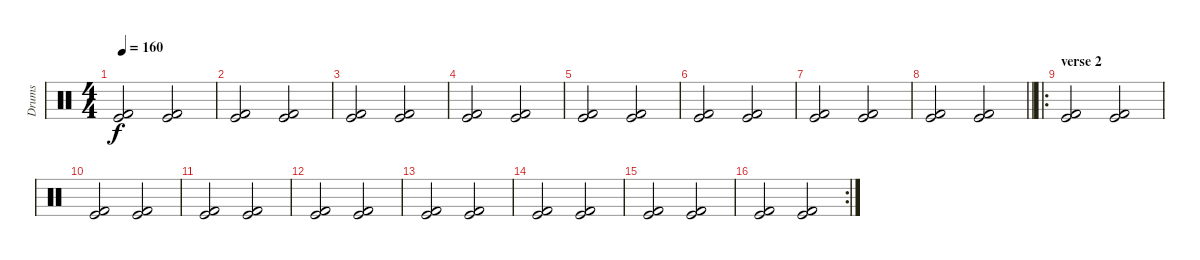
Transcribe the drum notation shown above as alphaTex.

\track ("Drums" "Drums") {instrument percussion}
\staff {score}
\articulation defaults
\ts (4 4)
\tempo 160
\clef neutral
\ks c
("Kick (hit)" "Kick (hit) 2").2{dy f} ("Kick (hit)" "Kick (hit) 2").2 |
("Kick (hit)" "Kick (hit) 2").2 ("Kick (hit)" "Kick (hit) 2").2 |
("Kick (hit)" "Kick (hit) 2").2 ("Kick (hit)" "Kick (hit) 2").2 |
("Kick (hit)" "Kick (hit) 2").2 ("Kick (hit)" "Kick (hit) 2").2 |
("Kick (hit)" "Kick (hit) 2").2 ("Kick (hit)" "Kick (hit) 2").2 |
("Kick (hit)" "Kick (hit) 2").2 ("Kick (hit)" "Kick (hit) 2").2 |
("Kick (hit)" "Kick (hit) 2").2 ("Kick (hit)" "Kick (hit) 2").2 |
\barLineRight lightlight
("Kick (hit)" "Kick (hit) 2").2 ("Kick (hit)" "Kick (hit) 2").2 |
\ro
\section ("" "verse 2")
("Kick (hit)" "Kick (hit) 2").2 ("Kick (hit)" "Kick (hit) 2").2 |
("Kick (hit)" "Kick (hit) 2").2 ("Kick (hit)" "Kick (hit) 2").2 |
("Kick (hit)" "Kick (hit) 2").2 ("Kick (hit)" "Kick (hit) 2").2 |
("Kick (hit)" "Kick (hit) 2").2 ("Kick (hit)" "Kick (hit) 2").2 |
("Kick (hit)" "Kick (hit) 2").2 ("Kick (hit)" "Kick (hit) 2").2 |
("Kick (hit)" "Kick (hit) 2").2 ("Kick (hit)" "Kick (hit) 2").2 |
("Kick (hit)" "Kick (hit) 2").2 ("Kick (hit)" "Kick (hit) 2").2 |
\rc 2
("Kick (hit)" "Kick (hit) 2").2 ("Kick (hit)" "Kick (hit) 2").2
